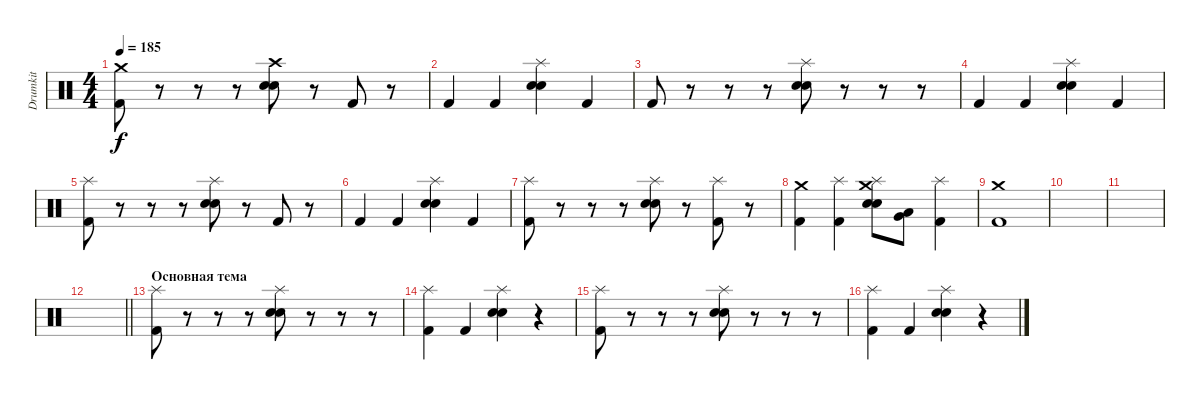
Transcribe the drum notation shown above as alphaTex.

\track ("Drumkit" "Drumkit") {instrument percussion}
\staff {score}
\articulation defaults
\ts (4 4)
\tempo 185
\clef neutral
\ks c
("Crash medium (hit)" "Kick (hit) 2").8{dy f} r.8 r.8 r.8 ("Crash high (hit)" "Electric Snare (hit)" "Snare (hit) 2").8 r.8 "Kick (hit) 2".8 r.8 |
"Kick (hit) 2".4 "Kick (hit) 2".4 ("Splash (hit)" "Electric Snare (hit)" "Snare (hit) 2").4 "Kick (hit) 2".4 |
"Kick (hit) 2".8 r.8 r.8 r.8 ("Splash (hit)" "Electric Snare (hit)" "Snare (hit) 2").8 r.8 r.8 r.8 |
"Kick (hit) 2".4 "Kick (hit) 2".4 ("Splash (hit)" "Electric Snare (hit)" "Snare (hit) 2").4 "Kick (hit) 2".4 |
("Splash (hit)" "Kick (hit) 2").8 r.8 r.8 r.8 ("Splash (hit)" "Electric Snare (hit)" "Snare (hit) 2").8 r.8 "Kick (hit) 2".8 r.8 |
"Kick (hit) 2".4 "Kick (hit) 2".4 ("Splash (hit)" "Electric Snare (hit)" "Snare (hit) 2").4 "Kick (hit) 2".4 |
("Splash (hit)" "Kick (hit) 2").8 r.8 r.8 r.8 ("Splash (hit)" "Electric Snare (hit)" "Snare (hit) 2").8 r.8 ("Splash (hit)" "Kick (hit) 2").8 r.8 |
("Crash medium (hit)" "Kick (hit) 2").4 ("Splash (hit)" "Kick (hit) 2").4 ("Crash medium (hit)" "Splash (hit)" "Electric Snare (hit)" "Snare (hit) 2").8 ("Low Tom (hit)" "Very Low Tom (hit)").8 ("Splash (hit)" "Kick (hit) 2").4 |
("Crash medium (hit)" "Kick (hit) 2").1 |
|
|
\barLineRight lightlight
|
\section ("" "Основная тема")
("Splash (hit)" "Kick (hit) 2").8{volume 13} r.8 r.8 r.8 ("Splash (hit)" "Electric Snare (hit)" "Snare (hit) 2").8 r.8 r.8 r.8 |
("Splash (hit)" "Kick (hit) 2").4 "Kick (hit) 2".4 ("Splash (hit)" "Electric Snare (hit)" "Snare (hit) 2").4 r.4 |
("Splash (hit)" "Kick (hit) 2").8 r.8 r.8 r.8 ("Splash (hit)" "Electric Snare (hit)" "Snare (hit) 2").8 r.8 r.8 r.8 |
("Splash (hit)" "Kick (hit) 2").4 "Kick (hit) 2".4 ("Splash (hit)" "Electric Snare (hit)" "Snare (hit) 2").4 r.4
